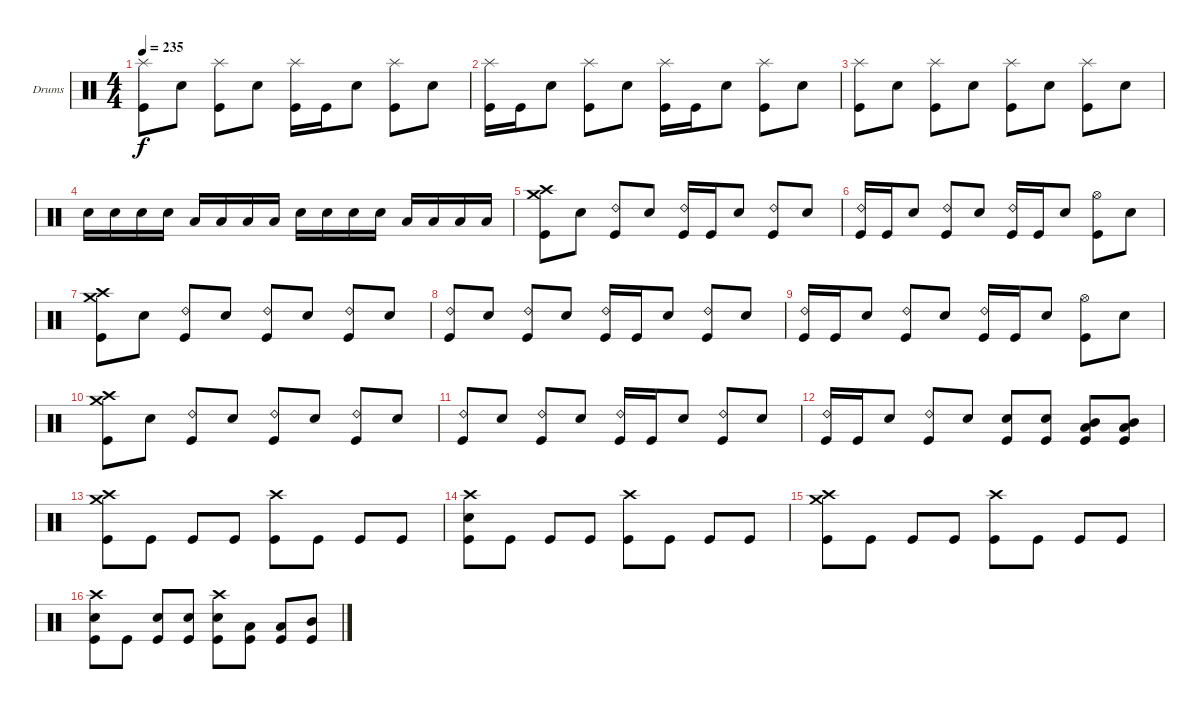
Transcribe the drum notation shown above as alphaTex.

\bracketExtendMode groupsimilarinstruments
\firstSystemTrackNameOrientation horizontal
\otherSystemsTrackNameOrientation horizontal
\track ("Drumkit" "Drums") {instrument percussion}
\staff {score}
\articulation defaults
\ts (4 4)
\tempo 235
\clef neutral
\ks c
("Splash (hit)" "Kick (hit)").8{dy f} "Snare (hit) 2".8 ("Splash (hit)" "Kick (hit)").8 "Snare (hit) 2".8 ("Splash (hit)" "Kick (hit)").16 "Kick (hit)".16 "Snare (hit) 2".8 ("Splash (hit)" "Kick (hit)").8 "Snare (hit) 2".8 |
("Splash (hit)" "Kick (hit)").16 "Kick (hit)".16 "Snare (hit) 2".8 ("Splash (hit)" "Kick (hit)").8 "Snare (hit) 2".8 ("Splash (hit)" "Kick (hit)").16 "Kick (hit)".16 "Snare (hit) 2".8 ("Splash (hit)" "Kick (hit)").8 "Snare (hit) 2".8 |
("Splash (hit)" "Kick (hit)").8 "Snare (hit) 2".8 ("Splash (hit)" "Kick (hit)").8 "Snare (hit) 2".8 ("Splash (hit)" "Kick (hit)").8 "Snare (hit) 2".8 ("Splash (hit)" "Kick (hit)").8 "Snare (hit) 2".8 |
"Snare (hit) 2".16 "Snare (hit) 2".16 "Snare (hit) 2".16 "Snare (hit) 2".16 "Low Tom (hit)".16 "Low Tom (hit)".16 "Low Tom (hit)".16 "Low Tom (hit)".16 "Snare (hit) 2".16 "Snare (hit) 2".16 "Snare (hit) 2".16 "Snare (hit) 2".16 "Low Tom (hit)".16 "Low Tom (hit)".16 "Low Tom (hit)".16 "Low Tom (hit)".16 |
("Crash high (hit)" "Crash medium (hit)" "Kick (hit)").8 "Snare (hit) 2".8 ("Ride (bell) 2" "Kick (hit)").8 "Snare (hit) 2".8 ("Ride (bell) 2" "Kick (hit)").16 "Kick (hit)".16 "Snare (hit) 2".8 ("Ride (bell) 2" "Kick (hit)").8 "Snare (hit) 2".8 |
("Ride (bell) 2" "Kick (hit)").16 "Kick (hit)".16 "Snare (hit) 2".8 ("Ride (bell) 2" "Kick (hit)").8 "Snare (hit) 2".8 ("Ride (bell) 2" "Kick (hit)").16 "Kick (hit)".16 "Snare (hit) 2".8 ("Hi-Hat (open)" "Kick (hit)").8 "Snare (hit) 2".8 |
("Crash high (hit)" "Crash medium (hit)" "Kick (hit)").8 "Snare (hit) 2".8 ("Ride (bell) 2" "Kick (hit)").8 "Snare (hit) 2".8 ("Ride (bell) 2" "Kick (hit)").8 "Snare (hit) 2".8 ("Ride (bell) 2" "Kick (hit)").8 "Snare (hit) 2".8 |
("Ride (bell) 2" "Kick (hit)").8 "Snare (hit) 2".8 ("Ride (bell) 2" "Kick (hit)").8 "Snare (hit) 2".8 ("Ride (bell) 2" "Kick (hit)").16 "Kick (hit)".16 "Snare (hit) 2".8 ("Ride (bell) 2" "Kick (hit)").8 "Snare (hit) 2".8 |
("Ride (bell) 2" "Kick (hit)").16 "Kick (hit)".16 "Snare (hit) 2".8 ("Ride (bell) 2" "Kick (hit)").8 "Snare (hit) 2".8 ("Ride (bell) 2" "Kick (hit)").16 "Kick (hit)".16 "Snare (hit) 2".8 ("Hi-Hat (open)" "Kick (hit)").8 "Snare (hit) 2".8 |
("Crash high (hit)" "Crash medium (hit)" "Kick (hit)").8 "Snare (hit) 2".8 ("Ride (bell) 2" "Kick (hit)").8 "Snare (hit) 2".8 ("Ride (bell) 2" "Kick (hit)").8 "Snare (hit) 2".8 ("Ride (bell) 2" "Kick (hit)").8 "Snare (hit) 2".8 |
("Ride (bell) 2" "Kick (hit)").8 "Snare (hit) 2".8 ("Ride (bell) 2" "Kick (hit)").8 "Snare (hit) 2".8 ("Ride (bell) 2" "Kick (hit)").16 "Kick (hit)".16 "Snare (hit) 2".8 ("Ride (bell) 2" "Kick (hit)").8 "Snare (hit) 2".8 |
("Ride (bell) 2" "Kick (hit)").16 "Kick (hit)".16 "Snare (hit) 2".8 ("Ride (bell) 2" "Kick (hit)").8 "Snare (hit) 2".8 ("Snare (hit) 2" "Kick (hit)").8 ("Snare (hit) 2" "Kick (hit)").8 ("Mid Tom (hit)" "Low Tom (hit)" "Kick (hit)").8 ("Mid Tom (hit)" "Low Tom (hit)" "Kick (hit)").8 |
("Crash high (hit)" "Crash medium (hit)" "Kick (hit)").8 "Kick (hit)".8 "Kick (hit)".8 "Kick (hit)".8 ("Crash high (hit)" "Kick (hit)").8 "Kick (hit)".8 "Kick (hit)".8 "Kick (hit)".8 |
("Crash high (hit)" "Snare (hit) 2" "Kick (hit)").8 "Kick (hit)".8 "Kick (hit)".8 "Kick (hit)".8 ("Crash high (hit)" "Kick (hit)").8 "Kick (hit)".8 "Kick (hit)".8 "Kick (hit)".8 |
("Crash high (hit)" "Crash medium (hit)" "Kick (hit)").8 "Kick (hit)".8 "Kick (hit)".8 "Kick (hit)".8 ("Crash high (hit)" "Kick (hit)").8 "Kick (hit)".8 "Kick (hit)".8 "Kick (hit)".8 |
("Crash high (hit)" "Snare (hit) 2" "Kick (hit)").8 "Kick (hit)".8 ("Snare (hit) 2" "Kick (hit)").8 ("Snare (hit) 2" "Kick (hit)").8 ("Crash high (hit)" "Snare (hit) 2" "Kick (hit)").8 ("Low Tom (hit)" "Kick (hit)").8 ("Low Tom (hit)" "Kick (hit)").8 ("Mid Tom (hit)" "Kick (hit)").8
